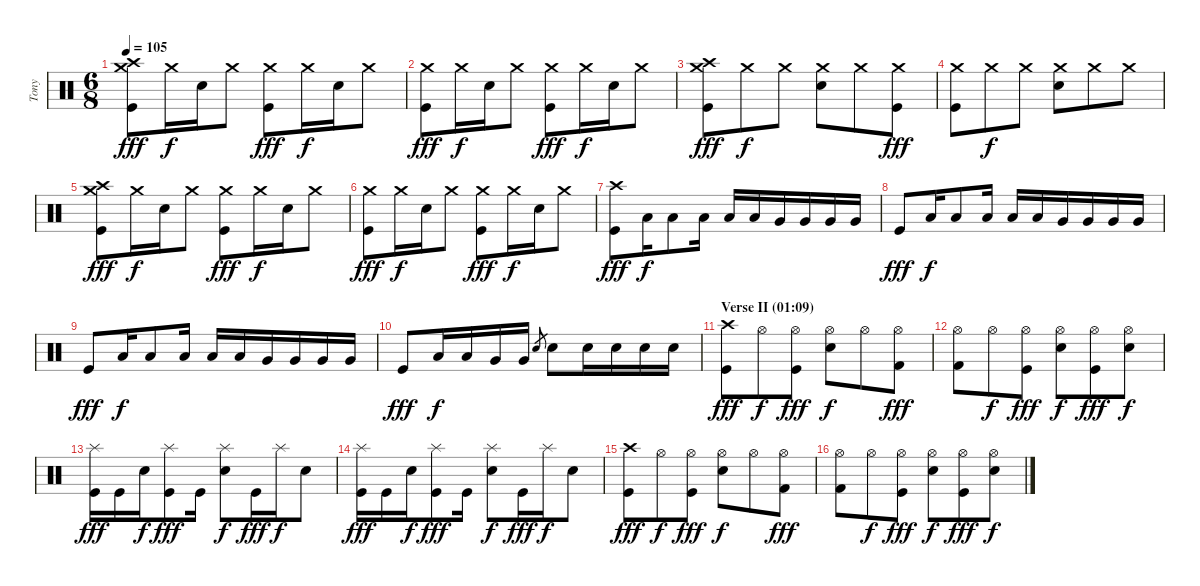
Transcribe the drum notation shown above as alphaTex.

\track ("Tony" "Tony") {instrument percussion}
\staff {score}
\articulation defaults
\ts (6 8)
\tempo 105
\clef neutral
\ks c
("Crash medium (hit)" "Crash high (hit)" "Kick (hit)").8{dy fff} "Crash medium (hit)".16{dy f} "Snare (hit) 2".16 "Crash medium (hit)".8 ("Crash medium (hit)" "Kick (hit)").8{dy fff} "Crash medium (hit)".16{dy f} "Snare (hit) 2".16 "Crash medium (hit)".8 |
("Crash medium (hit)" "Kick (hit)").8{dy fff} "Crash medium (hit)".16{dy f} "Snare (hit) 2".16 "Crash medium (hit)".8 ("Crash medium (hit)" "Kick (hit)").8{dy fff} "Crash medium (hit)".16{dy f} "Snare (hit) 2".16 "Crash medium (hit)".8 |
("Crash medium (hit)" "Crash high (hit)" "Kick (hit)").8{dy fff} "Crash medium (hit)".8{dy f} "Crash medium (hit)".8 ("Crash medium (hit)" "Snare (hit) 2").8 "Crash medium (hit)".8 ("Crash medium (hit)" "Kick (hit)").8{dy fff} |
("Crash medium (hit)" "Kick (hit)").8 "Crash medium (hit)".8{dy f} "Crash medium (hit)".8 ("Crash medium (hit)" "Snare (hit) 2").8 "Crash medium (hit)".8 "Crash medium (hit)".8 |
("Crash medium (hit)" "Crash high (hit)" "Kick (hit)").8{dy fff} "Crash medium (hit)".16{dy f} "Snare (hit) 2".16 "Crash medium (hit)".8 ("Crash medium (hit)" "Kick (hit)").8{dy fff} "Crash medium (hit)".16{dy f} "Snare (hit) 2".16 "Crash medium (hit)".8 |
("Crash medium (hit)" "Kick (hit)").8{dy fff} "Crash medium (hit)".16{dy f} "Snare (hit) 2".16 "Crash medium (hit)".8 ("Crash medium (hit)" "Kick (hit)").8{dy fff} "Crash medium (hit)".16{dy f} "Snare (hit) 2".16 "Crash medium (hit)".8 |
("Crash high (hit)" "Kick (hit)").8{dy fff} "Low Tom (hit)".16{dy f} "Low Tom (hit)".8 "Low Tom (hit)".16 "Low Tom (hit)".16 "Low Tom (hit)".16 "Very Low Tom (hit)".16 "Very Low Tom (hit)".16 "Very Low Tom (hit)".16 "Very Low Tom (hit)".16 |
"Kick (hit)".8{dy fff} "Low Tom (hit)".16{dy f} "Low Tom (hit)".8 "Low Tom (hit)".16 "Low Tom (hit)".16 "Low Tom (hit)".16 "Very Low Tom (hit)".16 "Very Low Tom (hit)".16 "Very Low Tom (hit)".16 "Very Low Tom (hit)".16 |
"Kick (hit)".8{dy fff} "Low Tom (hit)".16{dy f} "Low Tom (hit)".8 "Low Tom (hit)".16 "Low Tom (hit)".16 "Low Tom (hit)".16 "Very Low Tom (hit)".16 "Very Low Tom (hit)".16 "Very Low Tom (hit)".16 "Very Low Tom (hit)".16 |
"Kick (hit)".8{dy fff} "Low Tom (hit)".16{dy f} "Low Tom (hit)".16 "Very Low Tom (hit)".16 "Very Low Tom (hit)".16 "Snare (hit) 2".8{gr} "Snare (hit) 2".8 "Snare (hit) 2".16 "Snare (hit) 2".16 "Snare (hit) 2".16 "Snare (hit) 2".16 |
\section ("" "Verse II (01:09)")
("Crash high (hit)" "Kick (hit)").8{dy fff} "Hi-Hat (open)".8{dy f} ("Hi-Hat (open)" "Kick (hit)").8{dy fff} ("Hi-Hat (open)" "Snare (hit) 2").8{dy f} "Hi-Hat (open)".8 ("Hi-Hat (open)" "Kick (hit) 2").8{dy fff} |
("Hi-Hat (open)" "Kick (hit) 2").8 "Hi-Hat (open)".8{dy f} ("Hi-Hat (open)" "Kick (hit)").8{dy fff} ("Hi-Hat (open)" "Snare (hit) 2").8{dy f} ("Hi-Hat (open)" "Kick (hit)").8{dy fff} ("Hi-Hat (open)" "Snare (hit) 2").8{dy f} |
("Splash (hit)" "Kick (hit)").16{dy fff} "Kick (hit)".16 "Snare (hit) 2".16{dy f} ("Splash (hit)" "Kick (hit)").8{dy fff} "Kick (hit)".16 ("Splash (hit)" "Snare (hit) 2").8{dy f} "Kick (hit)".16{dy fff} "Splash (hit)".16{dy f} "Snare (hit) 2".8 |
("Splash (hit)" "Kick (hit)").16{dy fff} "Kick (hit)".16 "Snare (hit) 2".16{dy f} ("Splash (hit)" "Kick (hit)").8{dy fff} "Kick (hit)".16 ("Splash (hit)" "Snare (hit) 2").8{dy f} "Kick (hit)".16{dy fff} "Splash (hit)".16{dy f} "Snare (hit) 2".8 |
("Crash high (hit)" "Kick (hit)").8{dy fff} "Hi-Hat (open)".8{dy f} ("Hi-Hat (open)" "Kick (hit)").8{dy fff} ("Hi-Hat (open)" "Snare (hit) 2").8{dy f} "Hi-Hat (open)".8 ("Hi-Hat (open)" "Kick (hit) 2").8{dy fff} |
("Hi-Hat (open)" "Kick (hit) 2").8 "Hi-Hat (open)".8{dy f} ("Hi-Hat (open)" "Kick (hit)").8{dy fff} ("Hi-Hat (open)" "Snare (hit) 2").8{dy f} ("Hi-Hat (open)" "Kick (hit)").8{dy fff} ("Hi-Hat (open)" "Snare (hit) 2").8{dy f}
